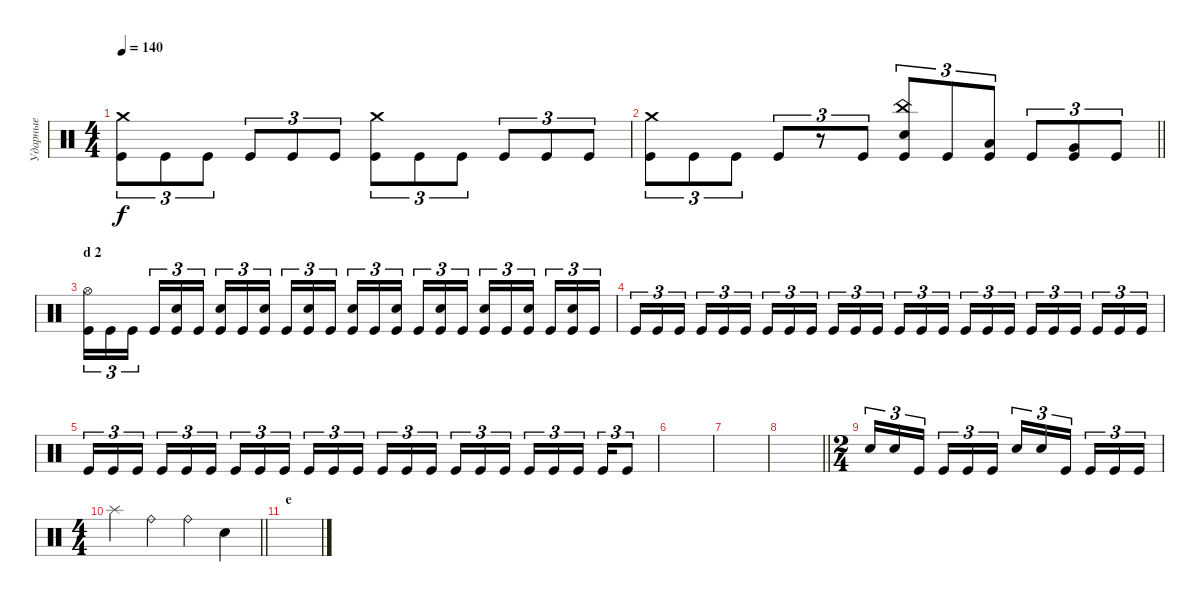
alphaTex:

\track ("Ударные" "Ударные") {instrument percussion}
\staff {score}
\articulation defaults
\ts (4 4)
\tempo 140
\clef neutral
\ks c
("Crash medium (hit)" "Kick (hit)").8{tu (3 2) dy f} "Kick (hit)".8{tu (3 2)} "Kick (hit)".8{tu (3 2)} "Kick (hit)".8{tu (3 2)} "Kick (hit)".8{tu (3 2)} "Kick (hit)".8{tu (3 2)} ("Crash medium (hit)" "Kick (hit)").8{tu (3 2)} "Kick (hit)".8{tu (3 2)} "Kick (hit)".8{tu (3 2)} "Kick (hit)".8{tu (3 2)} "Kick (hit)".8{tu (3 2)} "Kick (hit)".8{tu (3 2)} |
\barLineRight lightlight
("Crash medium (hit)" "Kick (hit)").8{tu (3 2)} "Kick (hit)".8{tu (3 2)} "Kick (hit)".8{tu (3 2)} "Kick (hit)".8{tu (3 2)} r.8{tu (3 2)} "Kick (hit)".8{tu (3 2)} ("China (hit)" "Electric Snare (hit)" "Kick (hit)").8{tu (3 2)} "Kick (hit)".8{tu (3 2)} ("Low Tom (hit)" "Kick (hit)").8{tu (3 2)} "Kick (hit)".8{tu (3 2)} ("Very Low Tom (hit)" "Kick (hit)").8{tu (3 2)} "Kick (hit)".8{tu (3 2)} |
\section ("" "d 2")
("Hi-Hat (open)" "Kick (hit)").16{tu (3 2)} "Kick (hit)".16{tu (3 2)} "Kick (hit)".16{tu (3 2) beam splitsecondary} "Kick (hit)".16{tu (3 2)} ("Electric Snare (hit)" "Kick (hit)").16{tu (3 2)} "Kick (hit)".16{tu (3 2)} ("Electric Snare (hit)" "Kick (hit)").16{tu (3 2)} "Kick (hit)".16{tu (3 2)} ("Electric Snare (hit)" "Kick (hit)").16{tu (3 2) beam splitsecondary} "Kick (hit)".16{tu (3 2)} ("Electric Snare (hit)" "Kick (hit)").16{tu (3 2)} "Kick (hit)".16{tu (3 2)} ("Electric Snare (hit)" "Kick (hit)").16{tu (3 2)} "Kick (hit)".16{tu (3 2)} ("Electric Snare (hit)" "Kick (hit)").16{tu (3 2) beam splitsecondary} "Kick (hit)".16{tu (3 2)} ("Electric Snare (hit)" "Kick (hit)").16{tu (3 2)} "Kick (hit)".16{tu (3 2)} ("Electric Snare (hit)" "Kick (hit)").16{tu (3 2)} "Kick (hit)".16{tu (3 2)} ("Electric Snare (hit)" "Kick (hit)").16{tu (3 2) beam splitsecondary} "Kick (hit)".16{tu (3 2)} ("Electric Snare (hit)" "Kick (hit)").16{tu (3 2)} "Kick (hit)".16{tu (3 2)} |
"Kick (hit)".16{tu (3 2)} "Kick (hit)".16{tu (3 2)} "Kick (hit)".16{tu (3 2) beam splitsecondary} "Kick (hit)".16{tu (3 2)} "Kick (hit)".16{tu (3 2)} "Kick (hit)".16{tu (3 2)} "Kick (hit)".16{tu (3 2)} "Kick (hit)".16{tu (3 2)} "Kick (hit)".16{tu (3 2) beam splitsecondary} "Kick (hit)".16{tu (3 2)} "Kick (hit)".16{tu (3 2)} "Kick (hit)".16{tu (3 2)} "Kick (hit)".16{tu (3 2)} "Kick (hit)".16{tu (3 2)} "Kick (hit)".16{tu (3 2) beam splitsecondary} "Kick (hit)".16{tu (3 2)} "Kick (hit)".16{tu (3 2)} "Kick (hit)".16{tu (3 2)} "Kick (hit)".16{tu (3 2)} "Kick (hit)".16{tu (3 2)} "Kick (hit)".16{tu (3 2) beam splitsecondary} "Kick (hit)".16{tu (3 2)} "Kick (hit)".16{tu (3 2)} "Kick (hit)".16{tu (3 2)} |
"Kick (hit)".16{tu (3 2)} "Kick (hit)".16{tu (3 2)} "Kick (hit)".16{tu (3 2) beam splitsecondary} "Kick (hit)".16{tu (3 2)} "Kick (hit)".16{tu (3 2)} "Kick (hit)".16{tu (3 2)} "Kick (hit)".16{tu (3 2)} "Kick (hit)".16{tu (3 2)} "Kick (hit)".16{tu (3 2) beam splitsecondary} "Kick (hit)".16{tu (3 2)} "Kick (hit)".16{tu (3 2)} "Kick (hit)".16{tu (3 2)} "Kick (hit)".16{tu (3 2)} "Kick (hit)".16{tu (3 2)} "Kick (hit)".16{tu (3 2) beam splitsecondary} "Kick (hit)".16{tu (3 2)} "Kick (hit)".16{tu (3 2)} "Kick (hit)".16{tu (3 2)} "Kick (hit)".16{tu (3 2)} "Kick (hit)".16{tu (3 2)} "Kick (hit)".16{tu (3 2) beam splitsecondary} "Kick (hit)".16{tu (3 2)} "Kick (hit)".8{tu (3 2)} |
|
|
\barLineRight lightlight
|
\ts (2 4)
\section ("" " ")
"Electric Snare (hit)".16{tu (3 2)} "Electric Snare (hit)".16{tu (3 2)} "Kick (hit)".16{tu (3 2) beam splitsecondary} "Kick (hit)".16{tu (3 2)} "Kick (hit)".16{tu (3 2)} "Kick (hit)".16{tu (3 2)} "Electric Snare (hit)".16{tu (3 2)} "Electric Snare (hit)".16{tu (3 2)} "Kick (hit)".16{tu (3 2) beam splitsecondary} "Kick (hit)".16{tu (3 2)} "Kick (hit)".16{tu (3 2)} "Kick (hit)".16{tu (3 2)} |
\ts (4 4)
\barLineRight lightlight "Splash (hit)".4 "Ride (bell)".4 "Ride (bell)".4 "Electric Snare (hit)".4
|
\section ("" "e")
